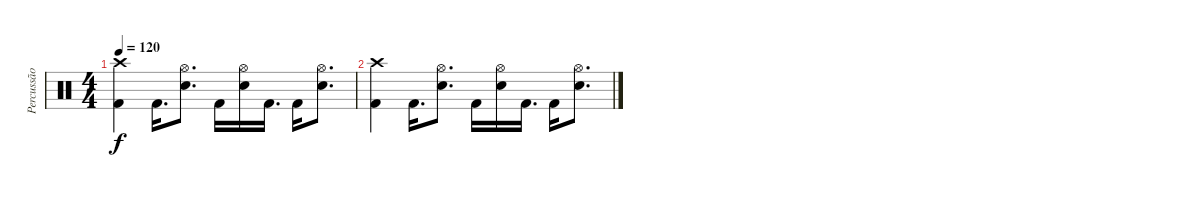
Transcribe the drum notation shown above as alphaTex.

\track ("Percussão" "Percussão") {solo instrument percussion}
\staff {score}
\articulation defaults
\ts (4 4)
\tempo 120
\clef neutral
\ks c
("Kick (hit) 2" "Crash high (hit)").4{dy f} "Kick (hit) 2".16{d} ("Snare (hit) 2" "Hi-Hat (open)").8{d} "Kick (hit) 2".16 ("Snare (hit) 2" "Hi-Hat (open)").16 "Kick (hit) 2".16{d} "Kick (hit) 2".16 ("Snare (hit) 2" "Hi-Hat (open)").8{d} |
("Kick (hit) 2" "Crash high (hit)").4 "Kick (hit) 2".16{d} ("Snare (hit) 2" "Hi-Hat (open)").8{d} "Kick (hit) 2".16 ("Snare (hit) 2" "Hi-Hat (open)").16 "Kick (hit) 2".16{d} "Kick (hit) 2".16 ("Snare (hit) 2" "Hi-Hat (open)").8{d}
